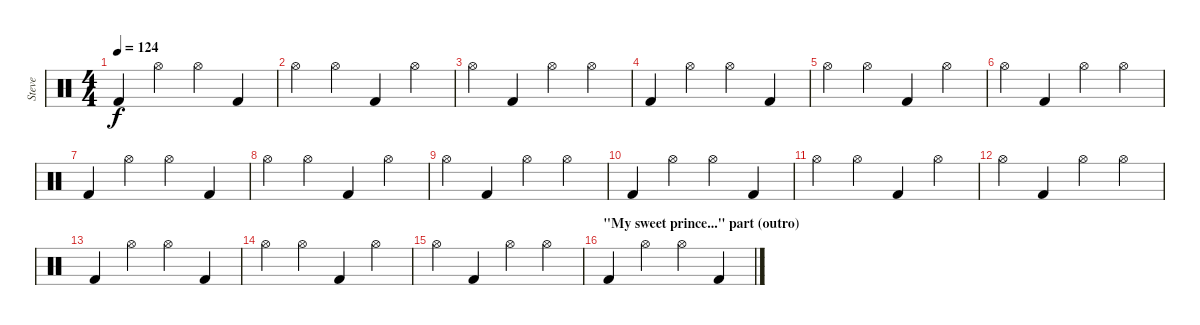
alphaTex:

\track ("Steve" "Steve") {instrument percussion}
\staff {score}
\articulation defaults
\ts (4 4)
\tempo 124
\clef neutral
\ks c "Kick (hit) 2".4{dy f} "Hi-Hat (open)".4 "Hi-Hat (open)".4 "Kick (hit) 2".4
|
"Hi-Hat (open)".4 "Hi-Hat (open)".4 "Kick (hit) 2".4 "Hi-Hat (open)".4 |
"Hi-Hat (open)".4 "Kick (hit) 2".4 "Hi-Hat (open)".4 "Hi-Hat (open)".4 |
"Kick (hit) 2".4 "Hi-Hat (open)".4 "Hi-Hat (open)".4 "Kick (hit) 2".4 |
"Hi-Hat (open)".4 "Hi-Hat (open)".4 "Kick (hit) 2".4 "Hi-Hat (open)".4 |
"Hi-Hat (open)".4 "Kick (hit) 2".4 "Hi-Hat (open)".4 "Hi-Hat (open)".4 |
"Kick (hit) 2".4 "Hi-Hat (open)".4 "Hi-Hat (open)".4 "Kick (hit) 2".4 |
"Hi-Hat (open)".4 "Hi-Hat (open)".4 "Kick (hit) 2".4 "Hi-Hat (open)".4 |
"Hi-Hat (open)".4 "Kick (hit) 2".4 "Hi-Hat (open)".4 "Hi-Hat (open)".4 |
"Kick (hit) 2".4 "Hi-Hat (open)".4 "Hi-Hat (open)".4 "Kick (hit) 2".4 |
"Hi-Hat (open)".4 "Hi-Hat (open)".4 "Kick (hit) 2".4 "Hi-Hat (open)".4 |
"Hi-Hat (open)".4 "Kick (hit) 2".4 "Hi-Hat (open)".4 "Hi-Hat (open)".4 |
"Kick (hit) 2".4 "Hi-Hat (open)".4 "Hi-Hat (open)".4 "Kick (hit) 2".4 |
"Hi-Hat (open)".4 "Hi-Hat (open)".4 "Kick (hit) 2".4 "Hi-Hat (open)".4 |
"Hi-Hat (open)".4 "Kick (hit) 2".4 "Hi-Hat (open)".4 "Hi-Hat (open)".4 |
\section ("" "\"My sweet prince...\" part (outro)")
"Kick (hit) 2".4 "Hi-Hat (open)".4 "Hi-Hat (open)".4 "Kick (hit) 2".4
